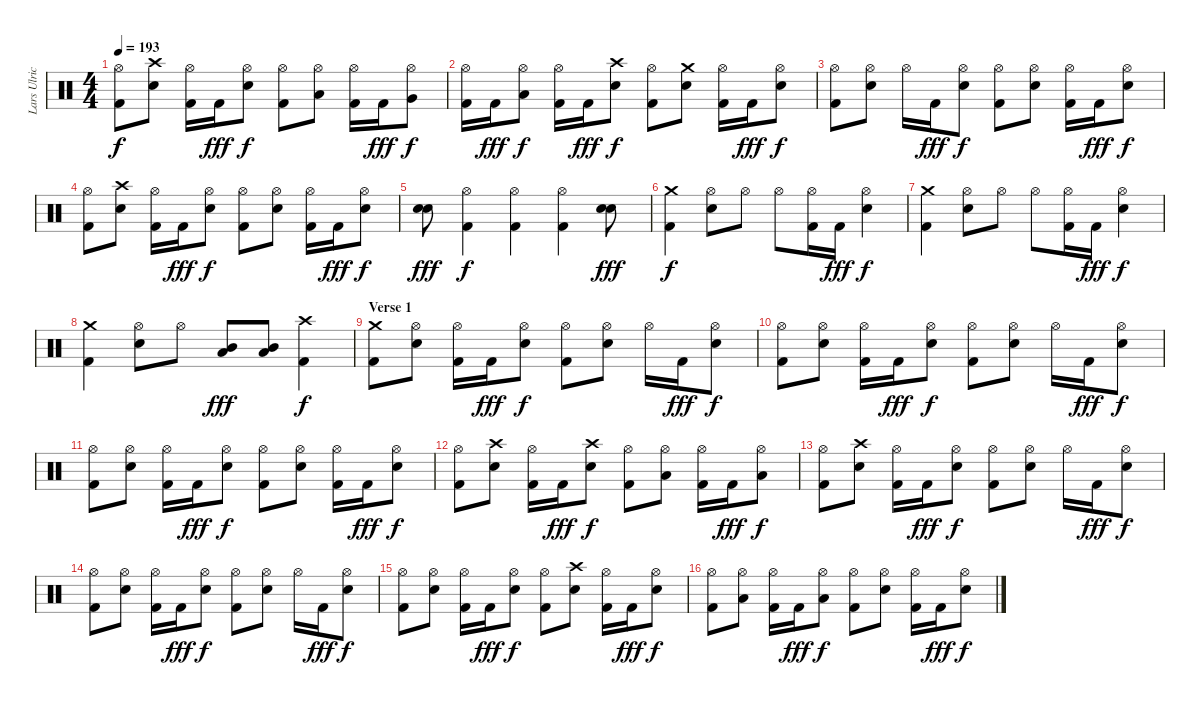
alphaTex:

\track ("Lars Ulrich - Drums" "Lars Ulric") {instrument percussion}
\staff {score}
\articulation defaults
\ts (4 4)
\tempo 193
\clef neutral
\ks c
("Hi-Hat (open)" "Kick (hit) 2").8{dy f} ("Crash high (hit)" "Snare (hit) 2").8 ("Hi-Hat (open)" "Kick (hit) 2").16 "Kick (hit) 2".16{dy fff} ("Hi-Hat (open)" "Snare (hit) 2").8{dy f} ("Hi-Hat (open)" "Kick (hit) 2").8 ("Hi-Hat (open)" "Low Tom (hit)").8 ("Hi-Hat (open)" "Kick (hit) 2").16 "Kick (hit) 2".16{dy fff} ("Hi-Hat (open)" "Very Low Tom (hit)").8{dy f} |
("Hi-Hat (open)" "Kick (hit) 2").16 "Kick (hit) 2".16{dy fff} ("Hi-Hat (open)" "Low Floor Tom (hit)").8{dy f} ("Hi-Hat (open)" "Kick (hit) 2").16 "Kick (hit) 2".16{dy fff} ("Crash high (hit)" "Snare (hit) 2").8{dy f} ("Hi-Hat (open)" "Kick (hit) 2").8 ("Crash medium (hit)" "Snare (hit) 2").8 ("Hi-Hat (open)" "Kick (hit) 2").16 "Kick (hit) 2".16{dy fff} ("Hi-Hat (open)" "Snare (hit) 2").8{dy f} |
("Hi-Hat (open)" "Kick (hit) 2").8 ("Hi-Hat (open)" "Snare (hit) 2").8 "Hi-Hat (open)".16 "Kick (hit) 2".16{dy fff} ("Hi-Hat (open)" "Snare (hit) 2").8{dy f} ("Hi-Hat (open)" "Kick (hit) 2").8 ("Hi-Hat (open)" "Snare (hit) 2").8 ("Hi-Hat (open)" "Kick (hit) 2").16 "Kick (hit) 2".16{dy fff} ("Hi-Hat (open)" "Snare (hit) 2").8{dy f} |
("Hi-Hat (open)" "Kick (hit) 2").8 ("Crash high (hit)" "Snare (hit) 2").8 ("Hi-Hat (open)" "Kick (hit) 2").16 "Kick (hit) 2".16{dy fff} ("Hi-Hat (open)" "Snare (hit) 2").8{dy f} ("Hi-Hat (open)" "Kick (hit) 2").8 ("Hi-Hat (open)" "Snare (hit) 2").8 ("Hi-Hat (open)" "Kick (hit) 2").16 "Kick (hit) 2".16{dy fff} ("Hi-Hat (open)" "Snare (hit) 2").8{dy f} |
("Snare (hit) 2" "Snare (hit) 2").8{dy fff} ("Hi-Hat (open)" "Kick (hit) 2").4{dy f} ("Hi-Hat (open)" "Kick (hit) 2").4 ("Hi-Hat (open)" "Kick (hit) 2").4 ("Snare (hit) 2" "Snare (hit) 2").8{dy fff} |
("Crash medium (hit)" "Kick (hit) 2").4{dy f} ("Hi-Hat (open)" "Snare (hit) 2").8 "Hi-Hat (open)".8 "Hi-Hat (open)".8 ("Hi-Hat (open)" "Kick (hit) 2").16 "Kick (hit) 2".16{dy fff} ("Hi-Hat (open)" "Snare (hit) 2").4{dy f} |
("Crash medium (hit)" "Kick (hit) 2").4 ("Hi-Hat (open)" "Snare (hit) 2").8 "Hi-Hat (open)".8 "Hi-Hat (open)".8 ("Hi-Hat (open)" "Kick (hit) 2").16 "Kick (hit) 2".16{dy fff} ("Hi-Hat (open)" "Snare (hit) 2").4{dy f} |
("Crash medium (hit)" "Kick (hit) 2").4 ("Hi-Hat (open)" "Snare (hit) 2").8 "Hi-Hat (open)".8 ("Mid Tom (hit)" "Low Tom (hit)").8{dy fff} ("Mid Tom (hit)" "Low Tom (hit)").8 ("Crash high (hit)" "Kick (hit) 2").4{dy f} |
\section ("" "Verse 1")
("Crash medium (hit)" "Kick (hit) 2").8 ("Hi-Hat (open)" "Snare (hit) 2").8 ("Hi-Hat (open)" "Kick (hit) 2").16 "Kick (hit) 2".16{dy fff} ("Hi-Hat (open)" "Snare (hit) 2").8{dy f} ("Hi-Hat (open)" "Kick (hit) 2").8 ("Hi-Hat (open)" "Snare (hit) 2").8 "Hi-Hat (open)".16 "Kick (hit) 2".16{dy fff} ("Hi-Hat (open)" "Snare (hit) 2").8{dy f} |
("Hi-Hat (open)" "Kick (hit) 2").8 ("Hi-Hat (open)" "Snare (hit) 2").8 ("Hi-Hat (open)" "Kick (hit) 2").16 "Kick (hit) 2".16{dy fff} ("Hi-Hat (open)" "Snare (hit) 2").8{dy f} ("Hi-Hat (open)" "Kick (hit) 2").8 ("Hi-Hat (open)" "Snare (hit) 2").8 "Hi-Hat (open)".16 "Kick (hit) 2".16{dy fff} ("Hi-Hat (open)" "Snare (hit) 2").8{dy f} |
("Hi-Hat (open)" "Kick (hit) 2").8 ("Hi-Hat (open)" "Snare (hit) 2").8 ("Hi-Hat (open)" "Kick (hit) 2").16 "Kick (hit) 2".16{dy fff} ("Hi-Hat (open)" "Snare (hit) 2").8{dy f} ("Hi-Hat (open)" "Kick (hit) 2").8 ("Hi-Hat (open)" "Snare (hit) 2").8 ("Hi-Hat (open)" "Kick (hit) 2").16 "Kick (hit) 2".16{dy fff} ("Hi-Hat (open)" "Snare (hit) 2").8{dy f} |
("Hi-Hat (open)" "Kick (hit) 2").8 ("Crash high (hit)" "Snare (hit) 2").8 ("Hi-Hat (open)" "Kick (hit) 2").16 "Kick (hit) 2".16{dy fff} ("Crash high (hit)" "Snare (hit) 2").8{dy f} ("Hi-Hat (open)" "Kick (hit) 2").8 ("Hi-Hat (open)" "Low Tom (hit)").8 ("Hi-Hat (open)" "Kick (hit) 2").16 "Kick (hit) 2".16{dy fff} ("Hi-Hat (open)" "Low Tom (hit)").8{dy f} |
("Hi-Hat (open)" "Kick (hit) 2").8 ("Crash high (hit)" "Snare (hit) 2").8 ("Hi-Hat (open)" "Kick (hit) 2").16 "Kick (hit) 2".16{dy fff} ("Hi-Hat (open)" "Snare (hit) 2").8{dy f} ("Hi-Hat (open)" "Kick (hit) 2").8 ("Hi-Hat (open)" "Snare (hit) 2").8 "Hi-Hat (open)".16 "Kick (hit) 2".16{dy fff} ("Hi-Hat (open)" "Snare (hit) 2").8{dy f} |
("Hi-Hat (open)" "Kick (hit) 2").8 ("Hi-Hat (open)" "Snare (hit) 2").8 ("Hi-Hat (open)" "Kick (hit) 2").16 "Kick (hit) 2".16{dy fff} ("Hi-Hat (open)" "Snare (hit) 2").8{dy f} ("Hi-Hat (open)" "Kick (hit) 2").8 ("Hi-Hat (open)" "Snare (hit) 2").8 "Hi-Hat (open)".16 "Kick (hit) 2".16{dy fff} ("Hi-Hat (open)" "Snare (hit) 2").8{dy f} |
("Hi-Hat (open)" "Kick (hit) 2").8 ("Hi-Hat (open)" "Snare (hit) 2").8 ("Hi-Hat (open)" "Kick (hit) 2").16 "Kick (hit) 2".16{dy fff} ("Hi-Hat (open)" "Snare (hit) 2").8{dy f} ("Hi-Hat (open)" "Kick (hit) 2").8 ("Crash high (hit)" "Snare (hit) 2").8 ("Hi-Hat (open)" "Kick (hit) 2").16 "Kick (hit) 2".16{dy fff} ("Hi-Hat (open)" "Snare (hit) 2").8{dy f} |
("Hi-Hat (open)" "Kick (hit) 2").8 ("Hi-Hat (open)" "Low Tom (hit)").8 ("Hi-Hat (open)" "Kick (hit) 2").16 "Kick (hit) 2".16{dy fff} ("Hi-Hat (open)" "Low Tom (hit)").8{dy f} ("Hi-Hat (open)" "Kick (hit) 2").8 ("Hi-Hat (open)" "Snare (hit) 2").8 ("Hi-Hat (open)" "Kick (hit) 2").16 "Kick (hit) 2".16{dy fff} ("Hi-Hat (open)" "Snare (hit) 2").8{dy f}
